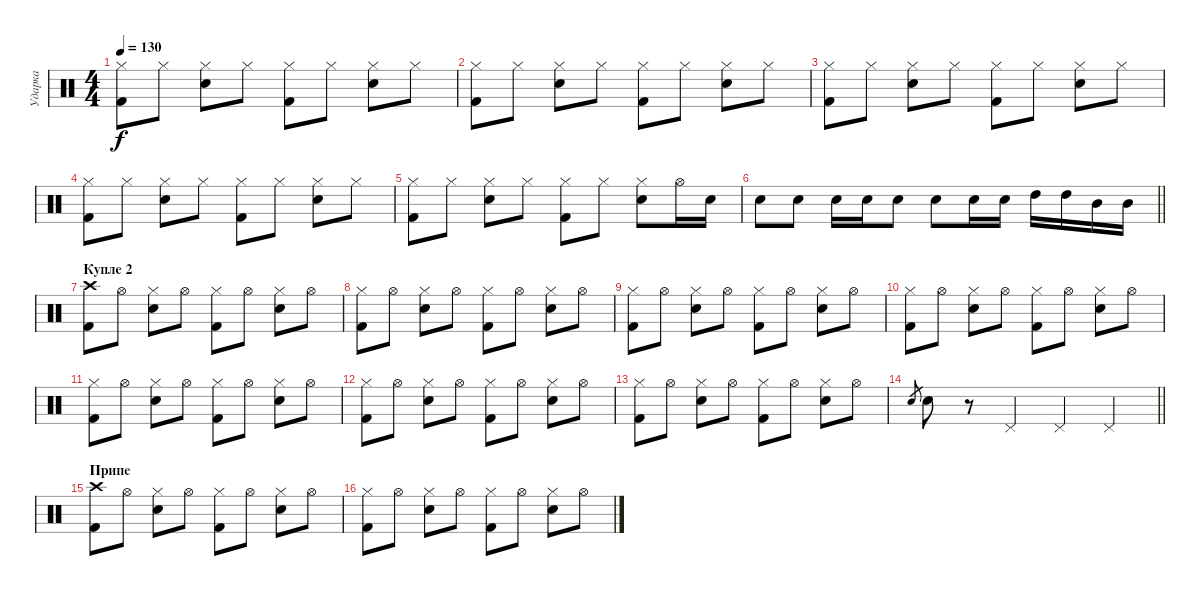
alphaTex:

\track ("Ударка" "Ударка") {instrument percussion}
\staff {score}
\articulation defaults
\ts (4 4)
\tempo 130
\clef neutral
\ks c
("Hi-Hat (closed)" "Kick (hit) 2").8{dy f} "Hi-Hat (closed)".8 ("Hi-Hat (closed)" "Snare (hit) 2").8 "Hi-Hat (closed)".8 ("Hi-Hat (closed)" "Kick (hit) 2").8 "Hi-Hat (closed)".8 ("Hi-Hat (closed)" "Snare (hit) 2").8 "Hi-Hat (closed)".8 |
("Hi-Hat (closed)" "Kick (hit) 2").8 "Hi-Hat (closed)".8 ("Hi-Hat (closed)" "Snare (hit) 2").8 "Hi-Hat (closed)".8 ("Hi-Hat (closed)" "Kick (hit) 2").8 "Hi-Hat (closed)".8 ("Hi-Hat (closed)" "Snare (hit) 2").8 "Hi-Hat (closed)".8 |
("Hi-Hat (closed)" "Kick (hit) 2").8 "Hi-Hat (closed)".8 ("Hi-Hat (closed)" "Snare (hit) 2").8 "Hi-Hat (closed)".8 ("Hi-Hat (closed)" "Kick (hit) 2").8 "Hi-Hat (closed)".8 ("Hi-Hat (closed)" "Snare (hit) 2").8 "Hi-Hat (closed)".8 |
("Hi-Hat (closed)" "Kick (hit) 2").8 "Hi-Hat (closed)".8 ("Hi-Hat (closed)" "Snare (hit) 2").8 "Hi-Hat (closed)".8 ("Hi-Hat (closed)" "Kick (hit) 2").8 "Hi-Hat (closed)".8 ("Hi-Hat (closed)" "Snare (hit) 2").8 "Hi-Hat (closed)".8 |
("Hi-Hat (closed)" "Kick (hit) 2").8 "Hi-Hat (closed)".8 ("Hi-Hat (closed)" "Snare (hit) 2").8 "Hi-Hat (closed)".8 ("Hi-Hat (closed)" "Kick (hit) 2").8 "Hi-Hat (closed)".8 ("Hi-Hat (closed)" "Snare (hit) 2").8 "Hi-Hat (open)".16 "Snare (hit) 2".16 |
\barLineRight lightlight "Snare (hit) 2".8 "Snare (hit) 2".8 "Snare (hit) 2".16 "Snare (hit) 2".16 "Snare (hit) 2".8 "Snare (hit) 2".8 "Snare (hit) 2".16 "Snare (hit) 2".16 "High Tom (hit)".16 "High Tom (hit)".16 "Mid Tom (hit)".16 "Mid Tom (hit)".16
|
\section ("" "Купле 2")
("Crash high (hit)" "Kick (hit) 2").8 "Hi-Hat (open)".8 ("Hi-Hat (closed)" "Snare (hit) 2").8 "Hi-Hat (open)".8 ("Hi-Hat (closed)" "Kick (hit) 2").8 "Hi-Hat (open)".8 ("Hi-Hat (closed)" "Snare (hit) 2").8 "Hi-Hat (open)".8 |
("Hi-Hat (closed)" "Kick (hit) 2").8 "Hi-Hat (open)".8 ("Hi-Hat (closed)" "Snare (hit) 2").8 "Hi-Hat (open)".8 ("Hi-Hat (closed)" "Kick (hit) 2").8 "Hi-Hat (open)".8 ("Hi-Hat (closed)" "Snare (hit) 2").8 "Hi-Hat (open)".8 |
("Hi-Hat (closed)" "Kick (hit) 2").8 "Hi-Hat (open)".8 ("Hi-Hat (closed)" "Snare (hit) 2").8 "Hi-Hat (open)".8 ("Hi-Hat (closed)" "Kick (hit) 2").8 "Hi-Hat (open)".8 ("Hi-Hat (closed)" "Snare (hit) 2").8 "Hi-Hat (open)".8 |
("Hi-Hat (closed)" "Kick (hit) 2").8 "Hi-Hat (open)".8 ("Hi-Hat (closed)" "Snare (hit) 2").8 "Hi-Hat (open)".8 ("Hi-Hat (closed)" "Kick (hit) 2").8 "Hi-Hat (open)".8 ("Hi-Hat (closed)" "Snare (hit) 2").8 "Hi-Hat (open)".8 |
("Hi-Hat (closed)" "Kick (hit) 2").8 "Hi-Hat (open)".8 ("Hi-Hat (closed)" "Snare (hit) 2").8 "Hi-Hat (open)".8 ("Hi-Hat (closed)" "Kick (hit) 2").8 "Hi-Hat (open)".8 ("Hi-Hat (closed)" "Snare (hit) 2").8 "Hi-Hat (open)".8 |
("Hi-Hat (closed)" "Kick (hit) 2").8 "Hi-Hat (open)".8 ("Hi-Hat (closed)" "Snare (hit) 2").8 "Hi-Hat (open)".8 ("Hi-Hat (closed)" "Kick (hit) 2").8 "Hi-Hat (open)".8 ("Hi-Hat (closed)" "Snare (hit) 2").8 "Hi-Hat (open)".8 |
("Hi-Hat (closed)" "Kick (hit) 2").8 "Hi-Hat (open)".8 ("Hi-Hat (closed)" "Snare (hit) 2").8 "Hi-Hat (open)".8 ("Hi-Hat (closed)" "Kick (hit) 2").8 "Hi-Hat (open)".8 ("Hi-Hat (closed)" "Snare (hit) 2").8 "Hi-Hat (open)".8 |
\barLineRight lightlight "Snare (hit) 2".8{gr} "Snare (hit) 2".8
r.8 "Pedal Hi-Hat (hit)".4 "Pedal Hi-Hat (hit)".4 "Pedal Hi-Hat (hit)".4 |
\section ("" "Припе")
("Crash high (hit)" "Kick (hit) 2").8 "Hi-Hat (open)".8 ("Hi-Hat (closed)" "Snare (hit) 2").8 "Hi-Hat (open)".8 ("Hi-Hat (closed)" "Kick (hit) 2").8 "Hi-Hat (open)".8 ("Hi-Hat (closed)" "Snare (hit) 2").8 "Hi-Hat (open)".8 |
("Hi-Hat (closed)" "Kick (hit) 2").8 "Hi-Hat (open)".8 ("Hi-Hat (closed)" "Snare (hit) 2").8 "Hi-Hat (open)".8 ("Hi-Hat (closed)" "Kick (hit) 2").8 "Hi-Hat (open)".8 ("Hi-Hat (closed)" "Snare (hit) 2").8 "Hi-Hat (open)".8
